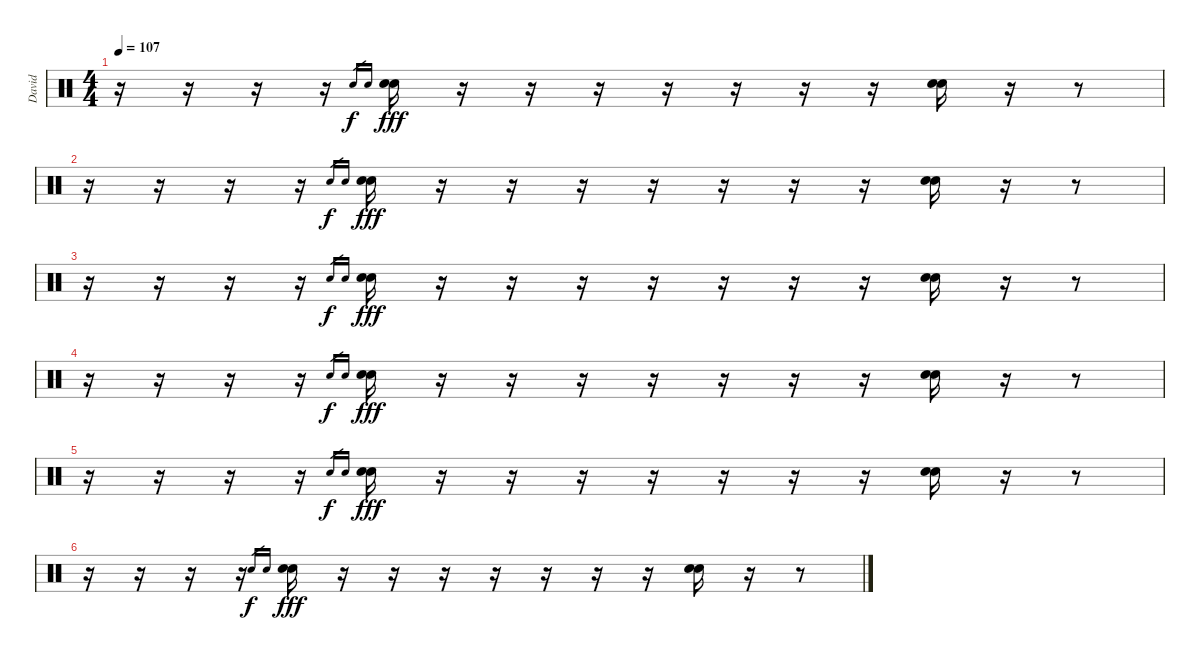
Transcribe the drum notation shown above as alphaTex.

\track ("David" "David") {instrument percussion}
\staff {score}
\articulation defaults
\ts (4 4)
\tempo 107
\clef neutral
\ks c
r.16{dy f} r.16 r.16 r.16 "Electric Snare (hit)".16{gr} "Electric Snare (hit)".16{gr} ("Electric Snare (hit)" "Electric Snare (hit)").16{dy fff} r.16 r.16 r.16 r.16 r.16 r.16 r.16 ("Electric Snare (hit)" "Electric Snare (hit)").16 r.16 r.8 |
r.16 r.16 r.16 r.16 "Electric Snare (hit)".16{gr dy f} "Electric Snare (hit)".16{gr} ("Electric Snare (hit)" "Electric Snare (hit)").16{dy fff} r.16 r.16 r.16 r.16 r.16 r.16 r.16 ("Electric Snare (hit)" "Electric Snare (hit)").16 r.16 r.8 |
r.16 r.16 r.16 r.16 "Electric Snare (hit)".16{gr dy f} "Electric Snare (hit)".16{gr} ("Electric Snare (hit)" "Electric Snare (hit)").16{dy fff} r.16 r.16 r.16 r.16 r.16 r.16 r.16 ("Electric Snare (hit)" "Electric Snare (hit)").16 r.16 r.8 |
r.16 r.16 r.16 r.16 "Electric Snare (hit)".16{gr dy f} "Electric Snare (hit)".16{gr} ("Electric Snare (hit)" "Electric Snare (hit)").16{dy fff} r.16 r.16 r.16 r.16 r.16 r.16 r.16 ("Electric Snare (hit)" "Electric Snare (hit)").16 r.16 r.8 |
r.16{volume 0} r.16 r.16 r.16 "Electric Snare (hit)".16{gr dy f} "Electric Snare (hit)".16{gr} ("Electric Snare (hit)" "Electric Snare (hit)").16{dy fff} r.16 r.16 r.16 r.16 r.16 r.16 r.16 ("Electric Snare (hit)" "Electric Snare (hit)").16 r.16 r.8 |
r.16 r.16 r.16 r.16 "Electric Snare (hit)".16{gr dy f} "Electric Snare (hit)".16{gr} ("Electric Snare (hit)" "Electric Snare (hit)").16{dy fff} r.16 r.16 r.16 r.16 r.16 r.16 r.16 ("Electric Snare (hit)" "Electric Snare (hit)").16 r.16 r.8
